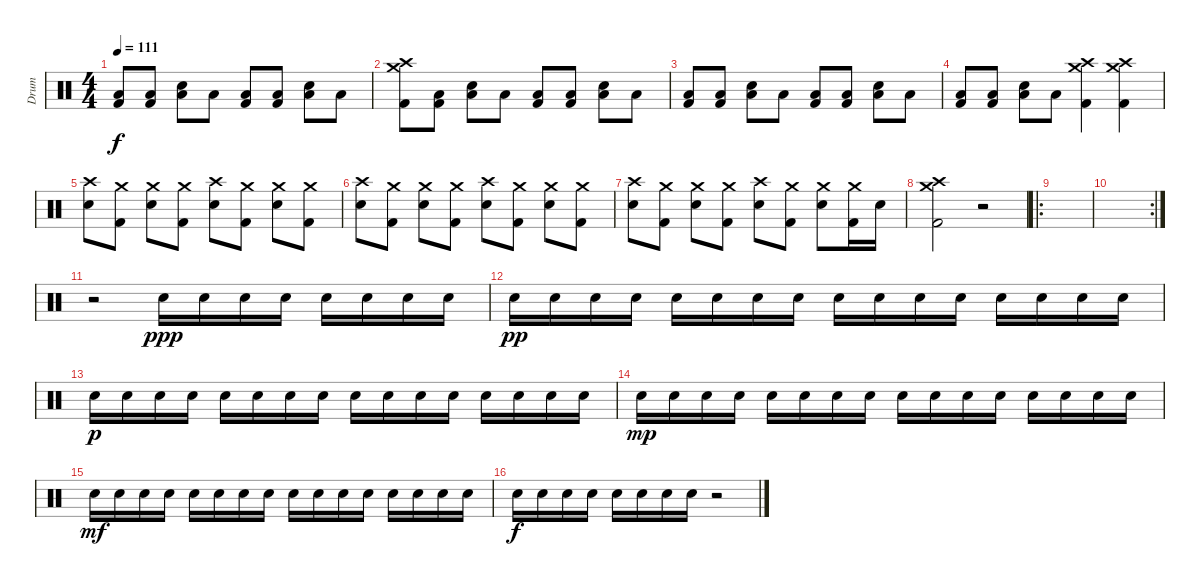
\track ("Drum" "Drum") {instrument percussion}
\staff {score}
\articulation defaults
\ts (4 4)
\tempo 111
\clef neutral
\ks c
("Low Floor Tom (hit)" "Kick (hit) 2").8{dy f} ("Low Floor Tom (hit)" "Kick (hit) 2").8 ("Low Floor Tom (hit)" "Snare (hit) 2").8 "Low Floor Tom (hit)".8 ("Low Floor Tom (hit)" "Kick (hit) 2").8 ("Low Floor Tom (hit)" "Kick (hit) 2").8 ("Low Floor Tom (hit)" "Snare (hit) 2").8 "Low Floor Tom (hit)".8 |
("Crash high (hit)" "Crash medium (hit)" "Kick (hit) 2").8 ("Low Floor Tom (hit)" "Kick (hit) 2").8 ("Low Floor Tom (hit)" "Snare (hit) 2").8 "Low Floor Tom (hit)".8 ("Low Floor Tom (hit)" "Kick (hit) 2").8 ("Low Floor Tom (hit)" "Kick (hit) 2").8 ("Low Floor Tom (hit)" "Snare (hit) 2").8 "Low Floor Tom (hit)".8 |
("Low Floor Tom (hit)" "Kick (hit) 2").8 ("Low Floor Tom (hit)" "Kick (hit) 2").8 ("Low Floor Tom (hit)" "Snare (hit) 2").8 "Low Floor Tom (hit)".8 ("Low Floor Tom (hit)" "Kick (hit) 2").8 ("Low Floor Tom (hit)" "Kick (hit) 2").8 ("Low Floor Tom (hit)" "Snare (hit) 2").8 "Low Floor Tom (hit)".8 |
("Low Floor Tom (hit)" "Kick (hit) 2").8 ("Low Floor Tom (hit)" "Kick (hit) 2").8 ("Low Floor Tom (hit)" "Snare (hit) 2").8 "Low Floor Tom (hit)".8 ("Crash high (hit)" "Crash medium (hit)" "Kick (hit) 2").4 ("Crash high (hit)" "Crash medium (hit)" "Kick (hit) 2").4 |
("Crash high (hit)" "Snare (hit) 2").8 ("Crash medium (hit)" "Kick (hit) 2").8 ("Crash medium (hit)" "Snare (hit) 2").8 ("Crash medium (hit)" "Kick (hit) 2").8 ("Crash high (hit)" "Snare (hit) 2").8 ("Crash medium (hit)" "Kick (hit) 2").8 ("Crash medium (hit)" "Snare (hit) 2").8 ("Crash medium (hit)" "Kick (hit) 2").8 |
("Crash high (hit)" "Snare (hit) 2").8 ("Crash medium (hit)" "Kick (hit) 2").8 ("Crash medium (hit)" "Snare (hit) 2").8 ("Crash medium (hit)" "Kick (hit) 2").8 ("Crash high (hit)" "Snare (hit) 2").8 ("Crash medium (hit)" "Kick (hit) 2").8 ("Crash medium (hit)" "Snare (hit) 2").8 ("Crash medium (hit)" "Kick (hit) 2").8 |
("Crash high (hit)" "Snare (hit) 2").8 ("Crash medium (hit)" "Kick (hit) 2").8 ("Crash medium (hit)" "Snare (hit) 2").8 ("Crash medium (hit)" "Kick (hit) 2").8 ("Crash high (hit)" "Snare (hit) 2").8 ("Crash medium (hit)" "Kick (hit) 2").8 ("Crash medium (hit)" "Snare (hit) 2").8 ("Crash medium (hit)" "Kick (hit) 2").16 "Snare (hit) 2".16 |
("Crash high (hit)" "Crash medium (hit)" "Kick (hit) 2").2 r.2 |
\ro
|
\rc 2
|
r.2 "Snare (hit) 2".16{dy ppp} "Snare (hit) 2".16 "Snare (hit) 2".16 "Snare (hit) 2".16 "Snare (hit) 2".16 "Snare (hit) 2".16 "Snare (hit) 2".16 "Snare (hit) 2".16 |
"Snare (hit) 2".16{dy pp} "Snare (hit) 2".16 "Snare (hit) 2".16 "Snare (hit) 2".16 "Snare (hit) 2".16 "Snare (hit) 2".16 "Snare (hit) 2".16 "Snare (hit) 2".16 "Snare (hit) 2".16 "Snare (hit) 2".16 "Snare (hit) 2".16 "Snare (hit) 2".16 "Snare (hit) 2".16 "Snare (hit) 2".16 "Snare (hit) 2".16 "Snare (hit) 2".16 |
"Snare (hit) 2".16{dy p} "Snare (hit) 2".16 "Snare (hit) 2".16 "Snare (hit) 2".16 "Snare (hit) 2".16 "Snare (hit) 2".16 "Snare (hit) 2".16 "Snare (hit) 2".16 "Snare (hit) 2".16 "Snare (hit) 2".16 "Snare (hit) 2".16 "Snare (hit) 2".16 "Snare (hit) 2".16 "Snare (hit) 2".16 "Snare (hit) 2".16 "Snare (hit) 2".16 |
"Snare (hit) 2".16{dy mp} "Snare (hit) 2".16 "Snare (hit) 2".16 "Snare (hit) 2".16 "Snare (hit) 2".16 "Snare (hit) 2".16 "Snare (hit) 2".16 "Snare (hit) 2".16 "Snare (hit) 2".16 "Snare (hit) 2".16 "Snare (hit) 2".16 "Snare (hit) 2".16 "Snare (hit) 2".16 "Snare (hit) 2".16 "Snare (hit) 2".16 "Snare (hit) 2".16 |
"Snare (hit) 2".16{dy mf} "Snare (hit) 2".16 "Snare (hit) 2".16 "Snare (hit) 2".16 "Snare (hit) 2".16 "Snare (hit) 2".16 "Snare (hit) 2".16 "Snare (hit) 2".16 "Snare (hit) 2".16 "Snare (hit) 2".16 "Snare (hit) 2".16 "Snare (hit) 2".16 "Snare (hit) 2".16 "Snare (hit) 2".16 "Snare (hit) 2".16 "Snare (hit) 2".16 |
"Snare (hit) 2".16{dy f} "Snare (hit) 2".16 "Snare (hit) 2".16 "Snare (hit) 2".16 "Snare (hit) 2".16 "Snare (hit) 2".16 "Snare (hit) 2".16 "Snare (hit) 2".16 r.2
